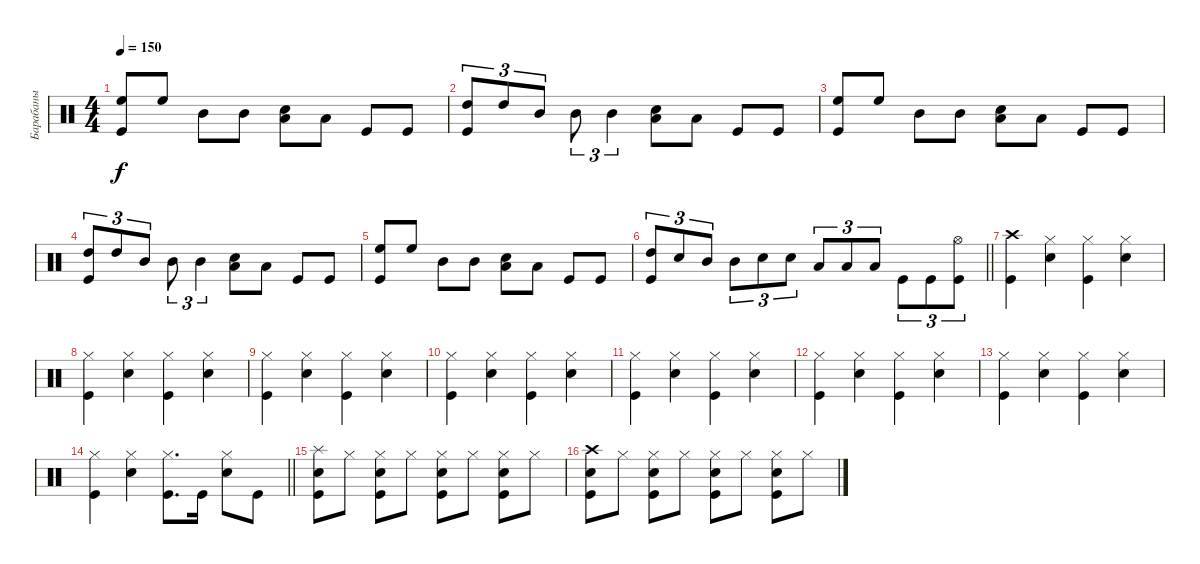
\track ("Барабаны" "Барабаны") {instrument percussion}
\staff {score}
\articulation defaults
\ts (4 4)
\tempo 150
\clef neutral
\ks c
("High Floor Tom (hit)" "Kick (hit)").8{dy f} "High Floor Tom (hit)".8 "Mid Tom (hit)".8 "Mid Tom (hit)".8 ("Electric Snare (hit)" "Low Tom (hit)").8 "Low Tom (hit)".8 "Kick (hit)".8 "Kick (hit)".8 |
("High Tom (hit)" "Kick (hit)").8{tu (3 2)} "High Tom (hit)".8{tu (3 2)} "Mid Tom (hit)".8{tu (3 2)} "Mid Tom (hit)".8{tu (3 2)} "Mid Tom (hit)".4{tu (3 2)} ("Electric Snare (hit)" "Low Tom (hit)").8 "Low Tom (hit)".8 "Kick (hit)".8 "Kick (hit)".8 |
("High Floor Tom (hit)" "Kick (hit)").8 "High Floor Tom (hit)".8 "Mid Tom (hit)".8 "Mid Tom (hit)".8 ("Electric Snare (hit)" "Low Tom (hit)").8 "Low Tom (hit)".8 "Kick (hit)".8 "Kick (hit)".8 |
("High Tom (hit)" "Kick (hit)").8{tu (3 2)} "High Tom (hit)".8{tu (3 2)} "Mid Tom (hit)".8{tu (3 2)} "Mid Tom (hit)".8{tu (3 2)} "Mid Tom (hit)".4{tu (3 2)} ("Electric Snare (hit)" "Low Tom (hit)").8 "Low Tom (hit)".8 "Kick (hit)".8 "Kick (hit)".8 |
("High Floor Tom (hit)" "Kick (hit)").8 "High Floor Tom (hit)".8 "Mid Tom (hit)".8 "Mid Tom (hit)".8 ("Electric Snare (hit)" "Low Tom (hit)").8 "Low Tom (hit)".8 "Kick (hit)".8 "Kick (hit)".8 |
\barLineRight lightlight
("High Tom (hit)" "Kick (hit)").8{tu (3 2)} "Electric Snare (hit)".8{tu (3 2)} "Mid Tom (hit)".8{tu (3 2)} "Mid Tom (hit)".8{tu (3 2)} "Electric Snare (hit)".8{tu (3 2)} "Electric Snare (hit)".8{tu (3 2)} "Low Tom (hit)".8{tu (3 2)} "Low Tom (hit)".8{tu (3 2)} "Low Tom (hit)".8{tu (3 2)} "Kick (hit)".8{tu (3 2)} "Kick (hit)".8{tu (3 2)} ("Hi-Hat (open)" "Kick (hit)").8{tu (3 2)} |
("Crash high (hit)" "Kick (hit)").4 ("Hi-Hat (closed)" "Electric Snare (hit)").4 ("Hi-Hat (closed)" "Kick (hit)").4 ("Hi-Hat (closed)" "Electric Snare (hit)").4 |
("Hi-Hat (closed)" "Kick (hit)").4 ("Hi-Hat (closed)" "Electric Snare (hit)").4 ("Hi-Hat (closed)" "Kick (hit)").4 ("Hi-Hat (closed)" "Electric Snare (hit)").4 |
("Hi-Hat (closed)" "Kick (hit)").4 ("Hi-Hat (closed)" "Electric Snare (hit)").4 ("Hi-Hat (closed)" "Kick (hit)").4 ("Hi-Hat (closed)" "Electric Snare (hit)").4 |
("Hi-Hat (closed)" "Kick (hit)").4 ("Hi-Hat (closed)" "Electric Snare (hit)").4 ("Hi-Hat (closed)" "Kick (hit)").4 ("Hi-Hat (closed)" "Electric Snare (hit)").4 |
("Hi-Hat (closed)" "Kick (hit)").4 ("Hi-Hat (closed)" "Electric Snare (hit)").4 ("Hi-Hat (closed)" "Kick (hit)").4 ("Hi-Hat (closed)" "Electric Snare (hit)").4 |
("Hi-Hat (closed)" "Kick (hit)").4 ("Hi-Hat (closed)" "Electric Snare (hit)").4 ("Hi-Hat (closed)" "Kick (hit)").4 ("Hi-Hat (closed)" "Electric Snare (hit)").4 |
("Hi-Hat (closed)" "Kick (hit)").4 ("Hi-Hat (closed)" "Electric Snare (hit)").4 ("Hi-Hat (closed)" "Kick (hit)").4 ("Hi-Hat (closed)" "Electric Snare (hit)").4 |
\barLineRight lightlight
("Hi-Hat (closed)" "Kick (hit)").4 ("Hi-Hat (closed)" "Electric Snare (hit)").4 ("Hi-Hat (closed)" "Kick (hit)").8{d} "Kick (hit)".16 ("Hi-Hat (closed)" "Electric Snare (hit)").8 "Kick (hit)".8 |
("Splash (hit)" "Electric Snare (hit)" "Kick (hit)").8 "Hi-Hat (closed)".8 ("Hi-Hat (closed)" "Electric Snare (hit)" "Kick (hit)").8 "Hi-Hat (closed)".8 ("Hi-Hat (closed)" "Electric Snare (hit)" "Kick (hit)").8 "Hi-Hat (closed)".8 ("Hi-Hat (closed)" "Electric Snare (hit)" "Kick (hit)").8 "Hi-Hat (closed)".8 |
("Crash high (hit)" "Electric Snare (hit)" "Kick (hit)").8 "Hi-Hat (closed)".8 ("Hi-Hat (closed)" "Electric Snare (hit)" "Kick (hit)").8 "Hi-Hat (closed)".8 ("Hi-Hat (closed)" "Electric Snare (hit)" "Kick (hit)").8 "Hi-Hat (closed)".8 ("Hi-Hat (closed)" "Electric Snare (hit)" "Kick (hit)").8 "Hi-Hat (closed)".8
